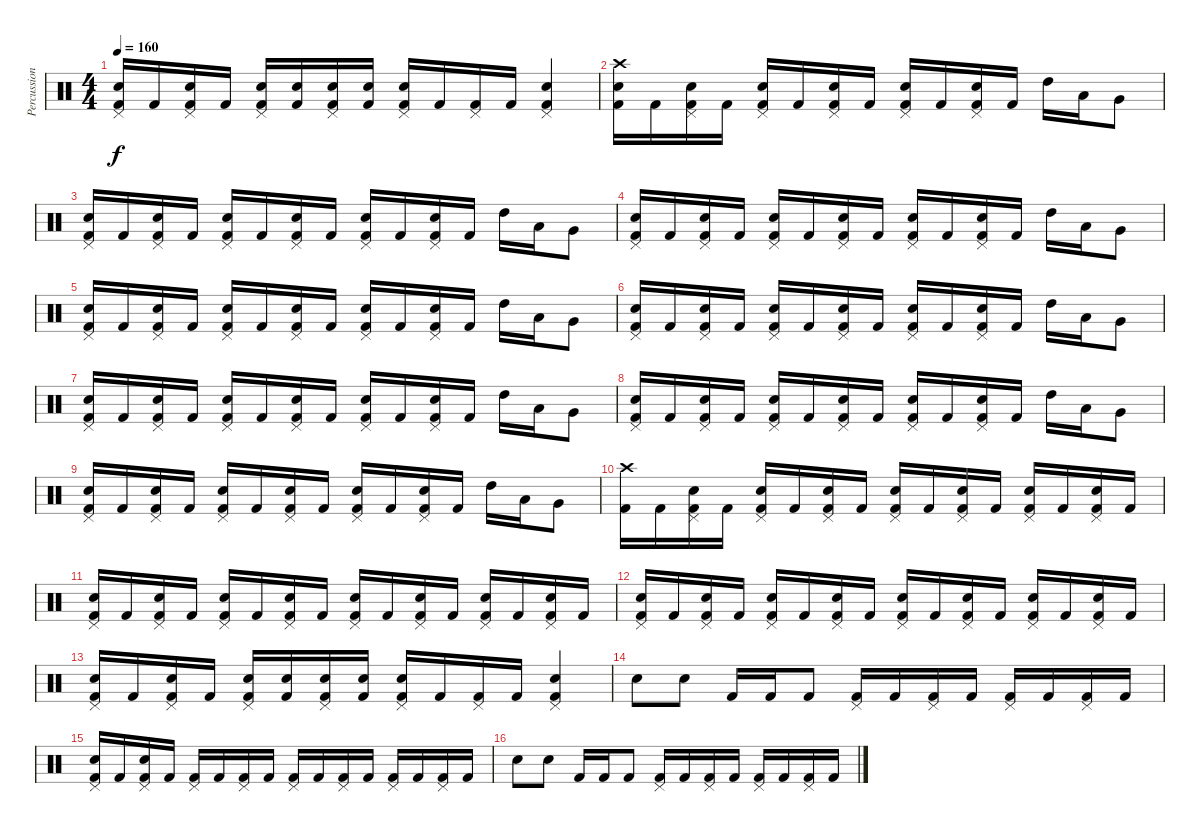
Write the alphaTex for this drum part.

\track ("Percussion" "Percussion") {instrument percussion}
\staff {score}
\articulation defaults
\ts (4 4)
\tempo 160
\clef neutral
\ks c
("Pedal Hi-Hat (hit)" "Snare (hit) 2" "Kick (hit) 2").16{dy f} "Kick (hit) 2".16 ("Pedal Hi-Hat (hit)" "Snare (hit) 2" "Kick (hit) 2").16 "Kick (hit) 2".16 ("Pedal Hi-Hat (hit)" "Snare (hit) 2" "Kick (hit) 2").16 ("Snare (hit) 2" "Kick (hit) 2").16 ("Pedal Hi-Hat (hit)" "Snare (hit) 2" "Kick (hit) 2").16 ("Snare (hit) 2" "Kick (hit) 2").16 ("Pedal Hi-Hat (hit)" "Snare (hit) 2" "Kick (hit) 2").16 "Kick (hit) 2".16 ("Pedal Hi-Hat (hit)" "Kick (hit) 2").16 "Kick (hit) 2".16 ("Pedal Hi-Hat (hit)" "Snare (hit) 2" "Kick (hit) 2").4 |
("Crash high (hit)" "Snare (hit) 2" "Kick (hit) 2").16 "Kick (hit) 2".16 ("Pedal Hi-Hat (hit)" "Snare (hit) 2" "Kick (hit) 2").16 "Kick (hit) 2".16 ("Pedal Hi-Hat (hit)" "Snare (hit) 2" "Kick (hit) 2").16 "Kick (hit) 2".16 ("Pedal Hi-Hat (hit)" "Snare (hit) 2" "Kick (hit) 2").16 "Kick (hit) 2".16 ("Pedal Hi-Hat (hit)" "Snare (hit) 2" "Kick (hit) 2").16 "Kick (hit) 2".16 ("Pedal Hi-Hat (hit)" "Snare (hit) 2" "Kick (hit) 2").16 "Kick (hit) 2".16 "High Tom (hit)".16 "Low Tom (hit)".16 "Very Low Tom (hit)".8 |
("Pedal Hi-Hat (hit)" "Snare (hit) 2" "Kick (hit) 2").16 "Kick (hit) 2".16 ("Pedal Hi-Hat (hit)" "Snare (hit) 2" "Kick (hit) 2").16 "Kick (hit) 2".16 ("Pedal Hi-Hat (hit)" "Snare (hit) 2" "Kick (hit) 2").16 "Kick (hit) 2".16 ("Pedal Hi-Hat (hit)" "Snare (hit) 2" "Kick (hit) 2").16 "Kick (hit) 2".16 ("Pedal Hi-Hat (hit)" "Snare (hit) 2" "Kick (hit) 2").16 "Kick (hit) 2".16 ("Pedal Hi-Hat (hit)" "Snare (hit) 2" "Kick (hit) 2").16 "Kick (hit) 2".16 "High Tom (hit)".16 "Low Tom (hit)".16 "Very Low Tom (hit)".8 |
("Pedal Hi-Hat (hit)" "Snare (hit) 2" "Kick (hit) 2").16 "Kick (hit) 2".16 ("Pedal Hi-Hat (hit)" "Snare (hit) 2" "Kick (hit) 2").16 "Kick (hit) 2".16 ("Pedal Hi-Hat (hit)" "Snare (hit) 2" "Kick (hit) 2").16 "Kick (hit) 2".16 ("Pedal Hi-Hat (hit)" "Snare (hit) 2" "Kick (hit) 2").16 "Kick (hit) 2".16 ("Pedal Hi-Hat (hit)" "Snare (hit) 2" "Kick (hit) 2").16 "Kick (hit) 2".16 ("Pedal Hi-Hat (hit)" "Snare (hit) 2" "Kick (hit) 2").16 "Kick (hit) 2".16 "High Tom (hit)".16 "Low Tom (hit)".16 "Very Low Tom (hit)".8 |
("Pedal Hi-Hat (hit)" "Snare (hit) 2" "Kick (hit) 2").16 "Kick (hit) 2".16 ("Pedal Hi-Hat (hit)" "Snare (hit) 2" "Kick (hit) 2").16 "Kick (hit) 2".16 ("Pedal Hi-Hat (hit)" "Snare (hit) 2" "Kick (hit) 2").16 "Kick (hit) 2".16 ("Pedal Hi-Hat (hit)" "Snare (hit) 2" "Kick (hit) 2").16 "Kick (hit) 2".16 ("Pedal Hi-Hat (hit)" "Snare (hit) 2" "Kick (hit) 2").16 "Kick (hit) 2".16 ("Pedal Hi-Hat (hit)" "Snare (hit) 2" "Kick (hit) 2").16 "Kick (hit) 2".16 "High Tom (hit)".16 "Low Tom (hit)".16 "Very Low Tom (hit)".8 |
("Pedal Hi-Hat (hit)" "Snare (hit) 2" "Kick (hit) 2").16 "Kick (hit) 2".16 ("Pedal Hi-Hat (hit)" "Snare (hit) 2" "Kick (hit) 2").16 "Kick (hit) 2".16 ("Pedal Hi-Hat (hit)" "Snare (hit) 2" "Kick (hit) 2").16 "Kick (hit) 2".16 ("Pedal Hi-Hat (hit)" "Snare (hit) 2" "Kick (hit) 2").16 "Kick (hit) 2".16 ("Pedal Hi-Hat (hit)" "Snare (hit) 2" "Kick (hit) 2").16 "Kick (hit) 2".16 ("Pedal Hi-Hat (hit)" "Snare (hit) 2" "Kick (hit) 2").16 "Kick (hit) 2".16 "High Tom (hit)".16 "Low Tom (hit)".16 "Very Low Tom (hit)".8 |
("Pedal Hi-Hat (hit)" "Snare (hit) 2" "Kick (hit) 2").16 "Kick (hit) 2".16 ("Pedal Hi-Hat (hit)" "Snare (hit) 2" "Kick (hit) 2").16 "Kick (hit) 2".16 ("Pedal Hi-Hat (hit)" "Snare (hit) 2" "Kick (hit) 2").16 "Kick (hit) 2".16 ("Pedal Hi-Hat (hit)" "Snare (hit) 2" "Kick (hit) 2").16 "Kick (hit) 2".16 ("Pedal Hi-Hat (hit)" "Snare (hit) 2" "Kick (hit) 2").16 "Kick (hit) 2".16 ("Pedal Hi-Hat (hit)" "Snare (hit) 2" "Kick (hit) 2").16 "Kick (hit) 2".16 "High Tom (hit)".16 "Low Tom (hit)".16 "Very Low Tom (hit)".8 |
("Pedal Hi-Hat (hit)" "Snare (hit) 2" "Kick (hit) 2").16 "Kick (hit) 2".16 ("Pedal Hi-Hat (hit)" "Snare (hit) 2" "Kick (hit) 2").16 "Kick (hit) 2".16 ("Pedal Hi-Hat (hit)" "Snare (hit) 2" "Kick (hit) 2").16 "Kick (hit) 2".16 ("Pedal Hi-Hat (hit)" "Snare (hit) 2" "Kick (hit) 2").16 "Kick (hit) 2".16 ("Pedal Hi-Hat (hit)" "Snare (hit) 2" "Kick (hit) 2").16 "Kick (hit) 2".16 ("Pedal Hi-Hat (hit)" "Snare (hit) 2" "Kick (hit) 2").16 "Kick (hit) 2".16 "High Tom (hit)".16 "Low Tom (hit)".16 "Very Low Tom (hit)".8 |
("Pedal Hi-Hat (hit)" "Snare (hit) 2" "Kick (hit) 2").16 "Kick (hit) 2".16 ("Pedal Hi-Hat (hit)" "Snare (hit) 2" "Kick (hit) 2").16 "Kick (hit) 2".16 ("Pedal Hi-Hat (hit)" "Snare (hit) 2" "Kick (hit) 2").16 "Kick (hit) 2".16 ("Pedal Hi-Hat (hit)" "Snare (hit) 2" "Kick (hit) 2").16 "Kick (hit) 2".16 ("Pedal Hi-Hat (hit)" "Snare (hit) 2" "Kick (hit) 2").16 "Kick (hit) 2".16 ("Pedal Hi-Hat (hit)" "Snare (hit) 2" "Kick (hit) 2").16 "Kick (hit) 2".16 "High Tom (hit)".16 "Low Tom (hit)".16 "Very Low Tom (hit)".8 |
("Crash high (hit)" "Kick (hit) 2").16 "Kick (hit) 2".16 ("Pedal Hi-Hat (hit)" "Snare (hit) 2" "Kick (hit) 2").16 "Kick (hit) 2".16 ("Pedal Hi-Hat (hit)" "Snare (hit) 2" "Kick (hit) 2").16 "Kick (hit) 2".16 ("Pedal Hi-Hat (hit)" "Snare (hit) 2" "Kick (hit) 2").16 "Kick (hit) 2".16 ("Pedal Hi-Hat (hit)" "Snare (hit) 2" "Kick (hit) 2").16 "Kick (hit) 2".16 ("Pedal Hi-Hat (hit)" "Snare (hit) 2" "Kick (hit) 2").16 "Kick (hit) 2".16 ("Pedal Hi-Hat (hit)" "Snare (hit) 2" "Kick (hit) 2").16 "Kick (hit) 2".16 ("Pedal Hi-Hat (hit)" "Snare (hit) 2" "Kick (hit) 2").16 "Kick (hit) 2".16 |
("Pedal Hi-Hat (hit)" "Snare (hit) 2" "Kick (hit) 2").16 "Kick (hit) 2".16 ("Pedal Hi-Hat (hit)" "Snare (hit) 2" "Kick (hit) 2").16 "Kick (hit) 2".16 ("Pedal Hi-Hat (hit)" "Snare (hit) 2" "Kick (hit) 2").16 "Kick (hit) 2".16 ("Pedal Hi-Hat (hit)" "Snare (hit) 2" "Kick (hit) 2").16 "Kick (hit) 2".16 ("Pedal Hi-Hat (hit)" "Snare (hit) 2" "Kick (hit) 2").16 "Kick (hit) 2".16 ("Pedal Hi-Hat (hit)" "Snare (hit) 2" "Kick (hit) 2").16 "Kick (hit) 2".16 ("Pedal Hi-Hat (hit)" "Snare (hit) 2" "Kick (hit) 2").16 "Kick (hit) 2".16 ("Pedal Hi-Hat (hit)" "Snare (hit) 2" "Kick (hit) 2").16 "Kick (hit) 2".16 |
("Pedal Hi-Hat (hit)" "Snare (hit) 2" "Kick (hit) 2").16 "Kick (hit) 2".16 ("Pedal Hi-Hat (hit)" "Snare (hit) 2" "Kick (hit) 2").16 "Kick (hit) 2".16 ("Pedal Hi-Hat (hit)" "Snare (hit) 2" "Kick (hit) 2").16 "Kick (hit) 2".16 ("Pedal Hi-Hat (hit)" "Snare (hit) 2" "Kick (hit) 2").16 "Kick (hit) 2".16 ("Pedal Hi-Hat (hit)" "Snare (hit) 2" "Kick (hit) 2").16 "Kick (hit) 2".16 ("Pedal Hi-Hat (hit)" "Snare (hit) 2" "Kick (hit) 2").16 "Kick (hit) 2".16 ("Pedal Hi-Hat (hit)" "Snare (hit) 2" "Kick (hit) 2").16 "Kick (hit) 2".16 ("Pedal Hi-Hat (hit)" "Snare (hit) 2" "Kick (hit) 2").16 "Kick (hit) 2".16 |
("Pedal Hi-Hat (hit)" "Snare (hit) 2" "Kick (hit) 2").16 "Kick (hit) 2".16 ("Pedal Hi-Hat (hit)" "Snare (hit) 2" "Kick (hit) 2").16 "Kick (hit) 2".16 ("Pedal Hi-Hat (hit)" "Snare (hit) 2" "Kick (hit) 2").16 ("Snare (hit) 2" "Kick (hit) 2").16 ("Pedal Hi-Hat (hit)" "Snare (hit) 2" "Kick (hit) 2").16 ("Snare (hit) 2" "Kick (hit) 2").16 ("Pedal Hi-Hat (hit)" "Snare (hit) 2" "Kick (hit) 2").16 "Kick (hit) 2".16 ("Pedal Hi-Hat (hit)" "Kick (hit) 2").16 "Kick (hit) 2".16 ("Pedal Hi-Hat (hit)" "Snare (hit) 2" "Kick (hit) 2").4 |
"Snare (hit) 2".8 "Snare (hit) 2".8 "Kick (hit) 2".16 "Kick (hit) 2".16 "Kick (hit) 2".8 ("Pedal Hi-Hat (hit)" "Kick (hit) 2").16 "Kick (hit) 2".16 ("Pedal Hi-Hat (hit)" "Kick (hit) 2").16 "Kick (hit) 2".16 ("Pedal Hi-Hat (hit)" "Kick (hit) 2").16 "Kick (hit) 2".16 ("Pedal Hi-Hat (hit)" "Kick (hit) 2").16 "Kick (hit) 2".16 |
("Pedal Hi-Hat (hit)" "Snare (hit) 2" "Kick (hit) 2").16 "Kick (hit) 2".16 ("Pedal Hi-Hat (hit)" "Snare (hit) 2" "Kick (hit) 2").16 "Kick (hit) 2".16 ("Pedal Hi-Hat (hit)" "Kick (hit) 2").16 "Kick (hit) 2".16 ("Pedal Hi-Hat (hit)" "Kick (hit) 2").16 "Kick (hit) 2".16 ("Pedal Hi-Hat (hit)" "Kick (hit) 2").16 "Kick (hit) 2".16 ("Pedal Hi-Hat (hit)" "Kick (hit) 2").16 "Kick (hit) 2".16 ("Pedal Hi-Hat (hit)" "Kick (hit) 2").16 "Kick (hit) 2".16 ("Pedal Hi-Hat (hit)" "Kick (hit) 2").16 "Kick (hit) 2".16 |
"Snare (hit) 2".8 "Snare (hit) 2".8 "Kick (hit) 2".16 "Kick (hit) 2".16 "Kick (hit) 2".8 ("Pedal Hi-Hat (hit)" "Kick (hit) 2").16 "Kick (hit) 2".16 ("Pedal Hi-Hat (hit)" "Kick (hit) 2").16 "Kick (hit) 2".16 ("Pedal Hi-Hat (hit)" "Kick (hit) 2").16 "Kick (hit) 2".16 ("Pedal Hi-Hat (hit)" "Kick (hit) 2").16 "Kick (hit) 2".16
